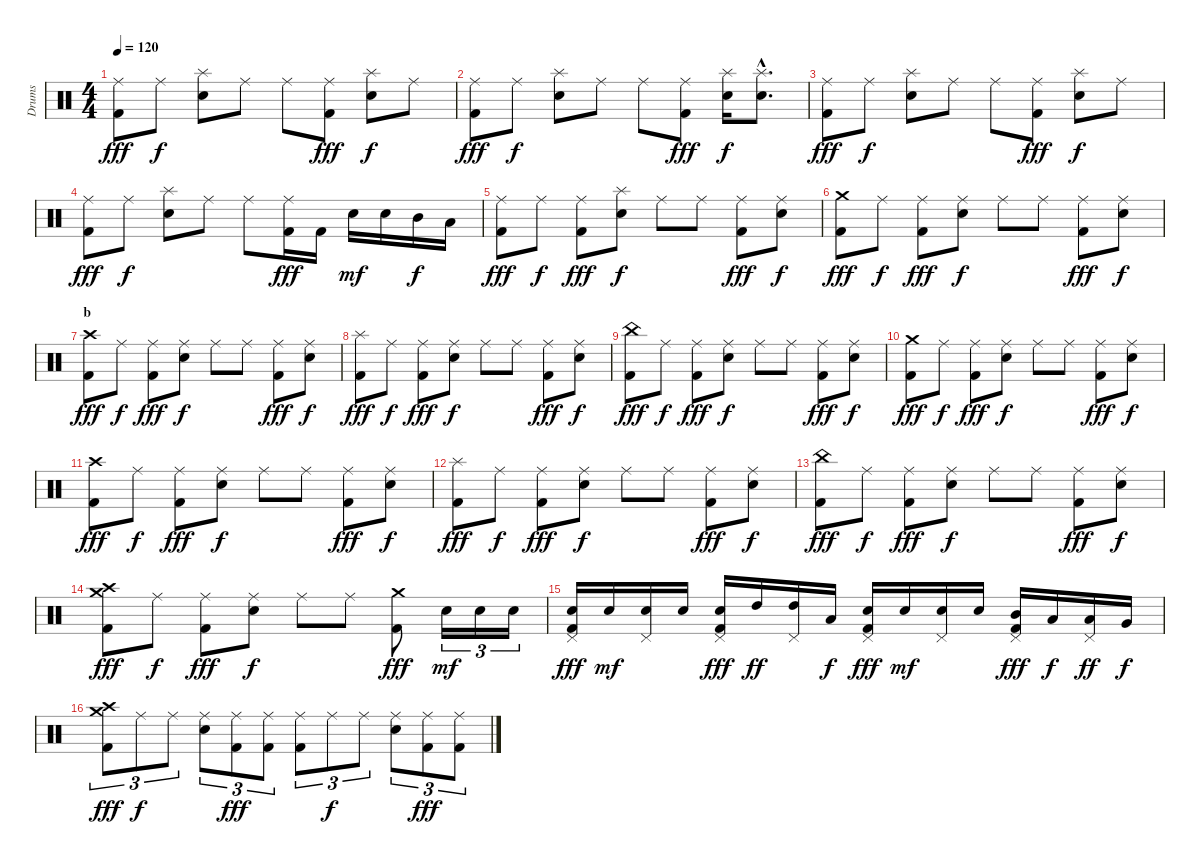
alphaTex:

\track ("Drums" "Drums") {instrument percussion}
\staff {score}
\articulation defaults
\ts (4 4)
\tempo 120
\clef neutral
\ks c
("Ride (middle)" "Kick (hit) 2").8{dy fff} "Ride (middle)".8{dy f} ("Splash (hit)" "Electric Snare (hit)").8 "Ride (middle)".8 "Ride (middle)".8 ("Ride (middle)" "Kick (hit) 2").8{dy fff} ("Splash (hit)" "Electric Snare (hit)").8{dy f} "Ride (middle)".8 |
("Ride (middle)" "Kick (hit) 2").8{dy fff} "Ride (middle)".8{dy f} ("Splash (hit)" "Electric Snare (hit)").8 "Ride (middle)".8 "Ride (middle)".8 ("Ride (middle)" "Kick (hit) 2").8{dy fff} ("Splash (hit)" "Electric Snare (hit)").16{dy f} ("Splash (hit)"{hac} "Electric Snare (hit)"{hac}).8{d} |
("Ride (middle)" "Kick (hit) 2").8{dy fff} "Ride (middle)".8{dy f} ("Splash (hit)" "Electric Snare (hit)").8 "Ride (middle)".8 "Ride (middle)".8 ("Ride (middle)" "Kick (hit) 2").8{dy fff} ("Splash (hit)" "Electric Snare (hit)").8{dy f} "Ride (middle)".8 |
("Ride (middle)" "Kick (hit) 2").8{dy fff} "Ride (middle)".8{dy f} ("Splash (hit)" "Electric Snare (hit)").8 "Ride (middle)".8 "Ride (middle)".8 ("Ride (middle)" "Kick (hit) 2").16{dy fff} "Kick (hit) 2".16 "Electric Snare (hit)".16{dy mf} "Electric Snare (hit)".16 "Mid Tom (hit)".16{dy f} "Low Tom (hit)".16 |
("Ride (middle)" "Kick (hit) 2").8{dy fff} "Ride (middle)".8{dy f} ("Ride (middle)" "Kick (hit) 2").8{dy fff} ("Splash (hit)" "Electric Snare (hit)").8{dy f} "Ride (middle)".8 "Ride (middle)".8 ("Ride (middle)" "Kick (hit) 2").8{dy fff} ("Ride (middle)" "Electric Snare (hit)").8{dy f} |
("Crash medium (hit)" "Kick (hit) 2").8{dy fff} "Ride (middle)".8{dy f} ("Ride (middle)" "Kick (hit) 2").8{dy fff} ("Ride (middle)" "Electric Snare (hit)").8{dy f} "Ride (middle)".8 "Ride (middle)".8 ("Ride (middle)" "Kick (hit) 2").8{dy fff} ("Ride (middle)" "Electric Snare (hit)").8{dy f} |
\section ("" "b")
("Crash high (hit)" "Kick (hit) 2").8{dy fff} "Ride (middle)".8{dy f} ("Ride (middle)" "Kick (hit) 2").8{dy fff} ("Ride (middle)" "Electric Snare (hit)").8{dy f} "Ride (middle)".8 "Ride (middle)".8 ("Ride (middle)" "Kick (hit) 2").8{dy fff} ("Ride (middle)" "Electric Snare (hit)").8{dy f} |
("Splash (hit)" "Kick (hit) 2").8{dy fff} "Ride (middle)".8{dy f} ("Ride (middle)" "Kick (hit) 2").8{dy fff} ("Ride (middle)" "Electric Snare (hit)").8{dy f} "Ride (middle)".8 "Ride (middle)".8 ("Ride (middle)" "Kick (hit) 2").8{dy fff} ("Ride (middle)" "Electric Snare (hit)").8{dy f} |
("China (hit)" "Kick (hit) 2").8{dy fff} "Ride (middle)".8{dy f} ("Ride (middle)" "Kick (hit) 2").8{dy fff} ("Ride (middle)" "Electric Snare (hit)").8{dy f} "Ride (middle)".8 "Ride (middle)".8 ("Ride (middle)" "Kick (hit) 2").8{dy fff} ("Ride (middle)" "Electric Snare (hit)").8{dy f} |
("Crash medium (hit)" "Kick (hit) 2").8{dy fff} "Ride (middle)".8{dy f} ("Ride (middle)" "Kick (hit) 2").8{dy fff} ("Ride (middle)" "Electric Snare (hit)").8{dy f} "Ride (middle)".8 "Ride (middle)".8 ("Ride (middle)" "Kick (hit) 2").8{dy fff} ("Ride (middle)" "Electric Snare (hit)").8{dy f} |
("Crash high (hit)" "Kick (hit) 2").8{dy fff} "Ride (middle)".8{dy f} ("Ride (middle)" "Kick (hit) 2").8{dy fff} ("Ride (middle)" "Electric Snare (hit)").8{dy f} "Ride (middle)".8 "Ride (middle)".8 ("Ride (middle)" "Kick (hit) 2").8{dy fff} ("Ride (middle)" "Electric Snare (hit)").8{dy f} |
("Splash (hit)" "Kick (hit) 2").8{dy fff} "Ride (middle)".8{dy f} ("Ride (middle)" "Kick (hit) 2").8{dy fff} ("Ride (middle)" "Electric Snare (hit)").8{dy f} "Ride (middle)".8 "Ride (middle)".8 ("Ride (middle)" "Kick (hit) 2").8{dy fff} ("Ride (middle)" "Electric Snare (hit)").8{dy f} |
("China (hit)" "Kick (hit) 2").8{dy fff} "Ride (middle)".8{dy f} ("Ride (middle)" "Kick (hit) 2").8{dy fff} ("Ride (middle)" "Electric Snare (hit)").8{dy f} "Ride (middle)".8 "Ride (middle)".8 ("Ride (middle)" "Kick (hit) 2").8{dy fff} ("Ride (middle)" "Electric Snare (hit)").8{dy f} |
("Crash medium (hit)" "Crash high (hit)" "Kick (hit) 2").8{dy fff} "Ride (middle)".8{dy f} ("Ride (middle)" "Kick (hit) 2").8{dy fff} ("Ride (middle)" "Electric Snare (hit)").8{dy f} "Ride (middle)".8 "Ride (middle)".8 ("Crash medium (hit)" "Kick (hit) 2").8{dy fff} "Electric Snare (hit)".16{tu (3 2) dy mf} "Electric Snare (hit)".16{tu (3 2)} "Electric Snare (hit)".16{tu (3 2)} |
("Pedal Hi-Hat (hit)" "Electric Snare (hit)" "Kick (hit) 2").16{dy fff} "Electric Snare (hit)".16{dy mf} ("Pedal Hi-Hat (hit)" "Electric Snare (hit)").16 "Electric Snare (hit)".16 ("Pedal Hi-Hat (hit)" "Electric Snare (hit)" "Kick (hit) 2").16{dy fff} "High Tom (hit)".16{dy ff} ("Pedal Hi-Hat (hit)" "High Tom (hit)").16 "Low Tom (hit)".16{dy f} ("Pedal Hi-Hat (hit)" "Electric Snare (hit)" "Kick (hit) 2").16{dy fff} "Electric Snare (hit)".16{dy mf} ("Pedal Hi-Hat (hit)" "Electric Snare (hit)").16 "Electric Snare (hit)".16 ("Pedal Hi-Hat (hit)" "Mid Tom (hit)" "Kick (hit) 2").16{dy fff} "Low Tom (hit)".16{dy f} ("Pedal Hi-Hat (hit)" "Low Tom (hit)").16{dy ff} "Very Low Tom (hit)".16{dy f} |
("Crash medium (hit)" "Crash high (hit)" "Kick (hit) 2").8{tu (3 2) dy fff} "Ride (middle)".8{tu (3 2) dy f} "Ride (middle)".8{tu (3 2)} ("Ride (middle)" "Electric Snare (hit)").8{tu (3 2)} ("Ride (middle)" "Kick (hit) 2").8{tu (3 2) dy fff} ("Ride (middle)" "Kick (hit) 2").8{tu (3 2)} ("Ride (middle)" "Kick (hit) 2").8{tu (3 2)} "Ride (middle)".8{tu (3 2) dy f} "Ride (middle)".8{tu (3 2)} ("Ride (middle)" "Electric Snare (hit)").8{tu (3 2)} ("Ride (middle)" "Kick (hit) 2").8{tu (3 2) dy fff} ("Ride (middle)" "Kick (hit) 2").8{tu (3 2)}
